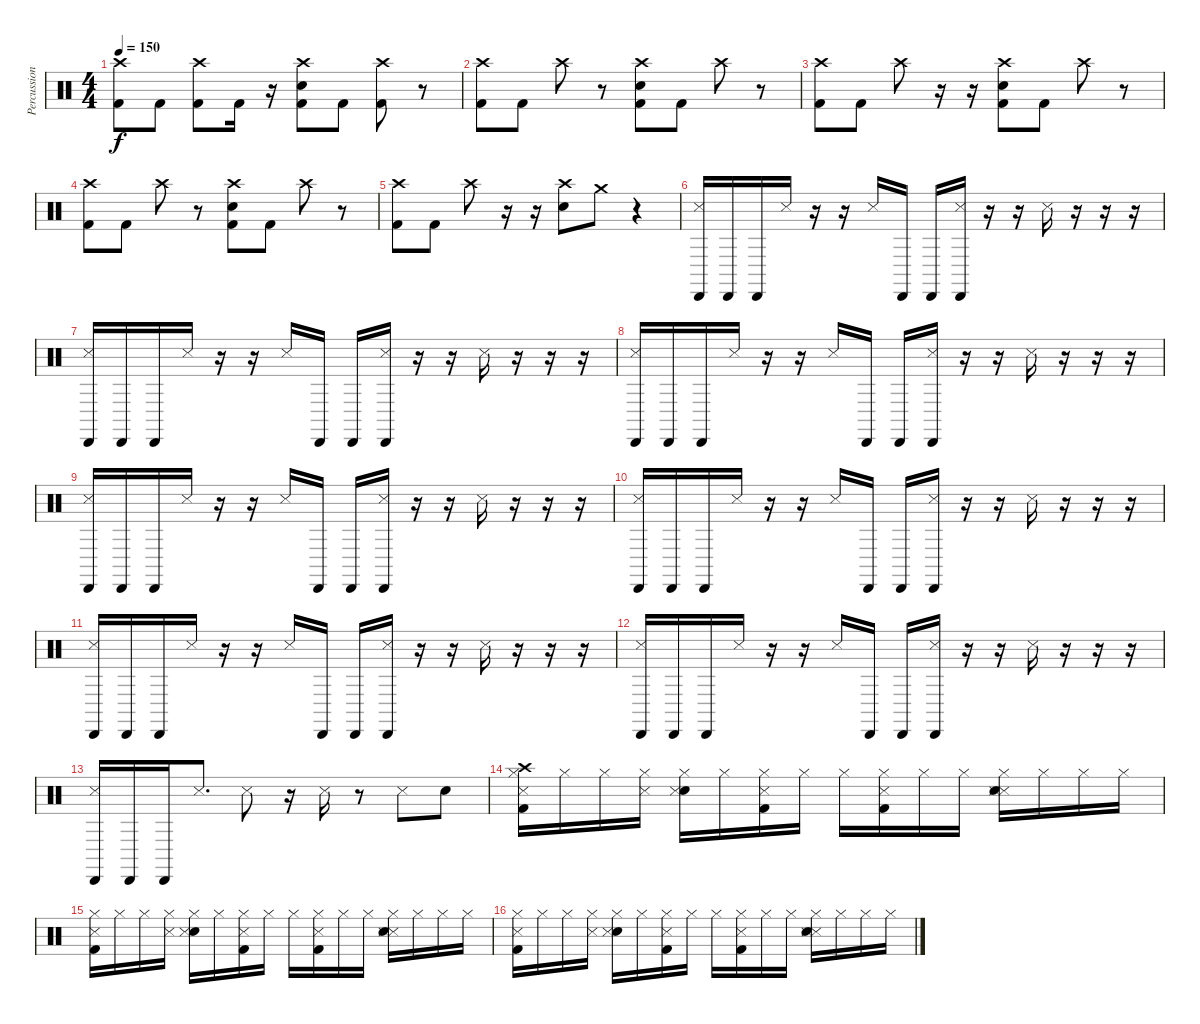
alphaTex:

\track ("Percussion" "Percussion") {instrument percussion}
\staff {score}
\articulation defaults
\ts (4 4)
\tempo 150
\clef neutral
\ks c
("Crash high (hit)" "Kick (hit) 2").8{dy f} "Kick (hit) 2".8 ("Crash high (hit)" "Kick (hit) 2").8 "Kick (hit) 2".16 r.16 ("Crash high (hit)" "Snare (hit) 2" "Kick (hit) 2").8 "Kick (hit) 2".8 ("Crash high (hit)" "Kick (hit) 2").8 r.8 |
("Crash high (hit)" "Kick (hit) 2").8 "Kick (hit) 2".8 "Crash high (hit)".8 r.8 ("Crash high (hit)" "Snare (hit) 2" "Kick (hit) 2").8 "Kick (hit) 2".8 "Crash high (hit)".8 r.8 |
("Crash high (hit)" "Kick (hit) 2").8 "Kick (hit) 2".8 "Crash high (hit)".8 r.16 r.16 ("Crash high (hit)" "Snare (hit) 2" "Kick (hit) 2").8 "Kick (hit) 2".8 "Crash high (hit)".8 r.8 |
("Crash high (hit)" "Kick (hit) 2").8 "Kick (hit) 2".8 "Crash high (hit)".8 r.8 ("Crash high (hit)" "Snare (hit) 2" "Kick (hit) 2").8 "Kick (hit) 2".8 "Crash high (hit)".8 r.8 |
("Crash high (hit)" "Kick (hit) 2").8 "Kick (hit) 2".8 "Crash high (hit)".8 r.16 r.16 ("Crash high (hit)" "Snare (hit) 2").8 "Crash medium (hit)".8 r.4 |
("Metronome (hit)" "Cabasa (hit)").16 "Cabasa (hit)".16 "Cabasa (hit)".16 "Metronome (hit)".16 r.16 r.16 "Metronome (hit)".16 "Cabasa (hit)".16 "Cabasa (hit)".16 ("Metronome (hit)" "Cabasa (hit)").16 r.16 r.16 "Metronome (hit)".16 r.16 r.16 r.16 |
("Metronome (hit)" "Cabasa (hit)").16 "Cabasa (hit)".16 "Cabasa (hit)".16 "Metronome (hit)".16 r.16 r.16 "Metronome (hit)".16 "Cabasa (hit)".16 "Cabasa (hit)".16 ("Metronome (hit)" "Cabasa (hit)").16 r.16 r.16 "Metronome (hit)".16 r.16 r.16 r.16 |
("Metronome (hit)" "Cabasa (hit)").16 "Cabasa (hit)".16 "Cabasa (hit)".16 "Metronome (hit)".16 r.16 r.16 "Metronome (hit)".16 "Cabasa (hit)".16 "Cabasa (hit)".16 ("Metronome (hit)" "Cabasa (hit)").16 r.16 r.16 "Metronome (hit)".16 r.16 r.16 r.16 |
("Metronome (hit)" "Cabasa (hit)").16 "Cabasa (hit)".16 "Cabasa (hit)".16 "Metronome (hit)".16 r.16 r.16 "Metronome (hit)".16 "Cabasa (hit)".16 "Cabasa (hit)".16 ("Metronome (hit)" "Cabasa (hit)").16 r.16 r.16 "Metronome (hit)".16 r.16 r.16 r.16 |
("Metronome (hit)" "Cabasa (hit)").16 "Cabasa (hit)".16 "Cabasa (hit)".16 "Metronome (hit)".16 r.16 r.16 "Metronome (hit)".16 "Cabasa (hit)".16 "Cabasa (hit)".16 ("Metronome (hit)" "Cabasa (hit)").16 r.16 r.16 "Metronome (hit)".16 r.16 r.16 r.16 |
("Metronome (hit)" "Cabasa (hit)").16 "Cabasa (hit)".16 "Cabasa (hit)".16 "Metronome (hit)".16 r.16 r.16 "Metronome (hit)".16 "Cabasa (hit)".16 "Cabasa (hit)".16 ("Metronome (hit)" "Cabasa (hit)").16 r.16 r.16 "Metronome (hit)".16 r.16 r.16 r.16 |
("Metronome (hit)" "Cabasa (hit)").16 "Cabasa (hit)".16 "Cabasa (hit)".16 "Metronome (hit)".16 r.16 r.16 "Metronome (hit)".16 "Cabasa (hit)".16 "Cabasa (hit)".16 ("Metronome (hit)" "Cabasa (hit)").16 r.16 r.16 "Metronome (hit)".16 r.16 r.16 r.16 |
("Metronome (hit)" "Cabasa (hit)").16 "Cabasa (hit)".16 "Cabasa (hit)".16 "Metronome (hit)".8{d} "Metronome (hit)".8 r.16 "Metronome (hit)".16 r.8 "Metronome (hit)".8 "Snare (hit) 2".8 |
("Metronome (hit)" "Crash high (hit)" "Hi-Hat (closed)" "Kick (hit) 2").16 "Hi-Hat (closed)".16 "Hi-Hat (closed)".16 ("Metronome (hit)" "Hi-Hat (closed)").16 ("Hi-Hat (closed)" "Electric Snare (hit)" "Snare (side stick) 3").16 "Hi-Hat (closed)".16 ("Metronome (hit)" "Hi-Hat (closed)" "Kick (hit) 2").16 "Hi-Hat (closed)".16 "Hi-Hat (closed)".16 ("Metronome (hit)" "Hi-Hat (closed)" "Kick (hit) 2").16 "Hi-Hat (closed)".16 "Hi-Hat (closed)".16 ("Metronome (hit)" "Hi-Hat (closed)" "Electric Snare (hit)" "Snare (side stick) 3").16 "Hi-Hat (closed)".16 "Hi-Hat (closed)".16 "Hi-Hat (closed)".16 |
("Metronome (hit)" "Hi-Hat (closed)" "Kick (hit) 2").16 "Hi-Hat (closed)".16 "Hi-Hat (closed)".16 ("Metronome (hit)" "Hi-Hat (closed)").16 ("Hi-Hat (closed)" "Electric Snare (hit)" "Snare (side stick) 3").16 "Hi-Hat (closed)".16 ("Metronome (hit)" "Hi-Hat (closed)" "Kick (hit) 2").16 "Hi-Hat (closed)".16 "Hi-Hat (closed)".16 ("Metronome (hit)" "Hi-Hat (closed)" "Kick (hit) 2").16 "Hi-Hat (closed)".16 "Hi-Hat (closed)".16 ("Metronome (hit)" "Hi-Hat (closed)" "Electric Snare (hit)" "Snare (side stick) 3").16 "Hi-Hat (closed)".16 "Hi-Hat (closed)".16 "Hi-Hat (closed)".16 |
("Metronome (hit)" "Hi-Hat (closed)" "Kick (hit) 2").16 "Hi-Hat (closed)".16 "Hi-Hat (closed)".16 ("Metronome (hit)" "Hi-Hat (closed)").16 ("Hi-Hat (closed)" "Electric Snare (hit)" "Snare (side stick) 3").16 "Hi-Hat (closed)".16 ("Metronome (hit)" "Hi-Hat (closed)" "Kick (hit) 2").16 "Hi-Hat (closed)".16 "Hi-Hat (closed)".16 ("Metronome (hit)" "Hi-Hat (closed)" "Kick (hit) 2").16 "Hi-Hat (closed)".16 "Hi-Hat (closed)".16 ("Metronome (hit)" "Hi-Hat (closed)" "Electric Snare (hit)" "Snare (side stick) 3").16 "Hi-Hat (closed)".16 "Hi-Hat (closed)".16 "Hi-Hat (closed)".16
